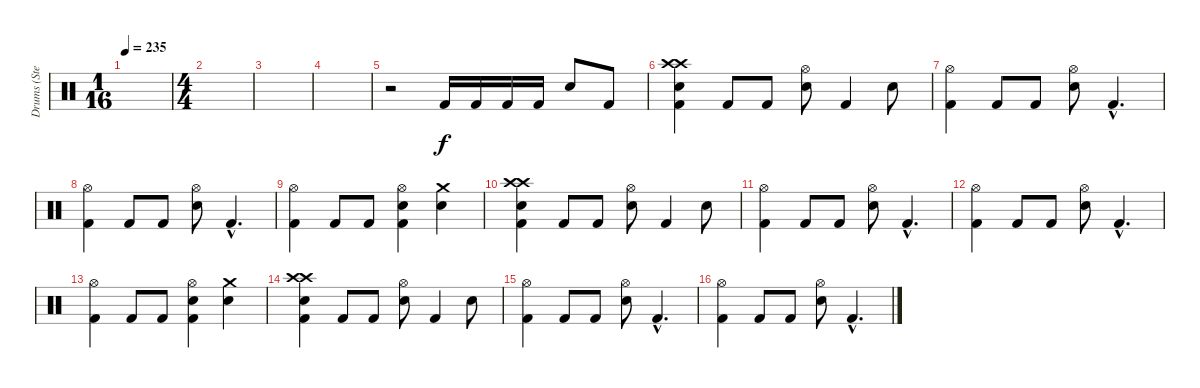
\track ("Drums (Steve Jocz)" "Drums (Ste") {instrument percussion}
\staff {score}
\articulation defaults
\ts (1 16)
\tempo 235
\clef neutral
\ks c
|
\ts (4 4)
|
|
|
r.2 "Kick (hit) 2".16 "Kick (hit) 2".16 "Kick (hit) 2".16 "Kick (hit) 2".16 "Electric Snare (hit)".8 "Kick (hit) 2".8 |
("Crash high (hit)" "Crash high (hit)" "Electric Snare (hit)" "Kick (hit) 2").4 "Kick (hit) 2".8 "Kick (hit) 2".8 ("Hi-Hat (open)" "Electric Snare (hit)").8 "Kick (hit) 2".4 "Electric Snare (hit)".8 |
("Hi-Hat (open)" "Kick (hit) 2").4 "Kick (hit) 2".8 "Kick (hit) 2".8 ("Hi-Hat (open)" "Electric Snare (hit)").8 "Kick (hit) 2"{hac}.4{d} |
("Hi-Hat (open)" "Kick (hit) 2").4 "Kick (hit) 2".8 "Kick (hit) 2".8 ("Hi-Hat (open)" "Electric Snare (hit)").8 "Kick (hit) 2"{hac}.4{d} |
("Hi-Hat (open)" "Kick (hit) 2").4 "Kick (hit) 2".8 "Kick (hit) 2".8 ("Hi-Hat (open)" "Electric Snare (hit)" "Kick (hit) 2").4 ("Crash medium (hit)" "Electric Snare (hit)").4 |
("Crash high (hit)" "Crash high (hit)" "Electric Snare (hit)" "Kick (hit) 2").4 "Kick (hit) 2".8 "Kick (hit) 2".8 ("Hi-Hat (open)" "Electric Snare (hit)").8 "Kick (hit) 2".4 "Electric Snare (hit)".8 |
("Hi-Hat (open)" "Kick (hit) 2").4 "Kick (hit) 2".8 "Kick (hit) 2".8 ("Hi-Hat (open)" "Electric Snare (hit)").8 "Kick (hit) 2"{hac}.4{d} |
("Hi-Hat (open)" "Kick (hit) 2").4 "Kick (hit) 2".8 "Kick (hit) 2".8 ("Hi-Hat (open)" "Electric Snare (hit)").8 "Kick (hit) 2"{hac}.4{d} |
("Hi-Hat (open)" "Kick (hit) 2").4 "Kick (hit) 2".8 "Kick (hit) 2".8 ("Hi-Hat (open)" "Electric Snare (hit)" "Kick (hit) 2").4 ("Crash medium (hit)" "Electric Snare (hit)").4 |
("Crash high (hit)" "Crash high (hit)" "Electric Snare (hit)" "Kick (hit) 2").4 "Kick (hit) 2".8 "Kick (hit) 2".8 ("Hi-Hat (open)" "Electric Snare (hit)").8 "Kick (hit) 2".4 "Electric Snare (hit)".8 |
("Hi-Hat (open)" "Kick (hit) 2").4 "Kick (hit) 2".8 "Kick (hit) 2".8 ("Hi-Hat (open)" "Electric Snare (hit)").8 "Kick (hit) 2"{hac}.4{d} |
("Hi-Hat (open)" "Kick (hit) 2").4 "Kick (hit) 2".8 "Kick (hit) 2".8 ("Hi-Hat (open)" "Electric Snare (hit)").8 "Kick (hit) 2"{hac}.4{d}
